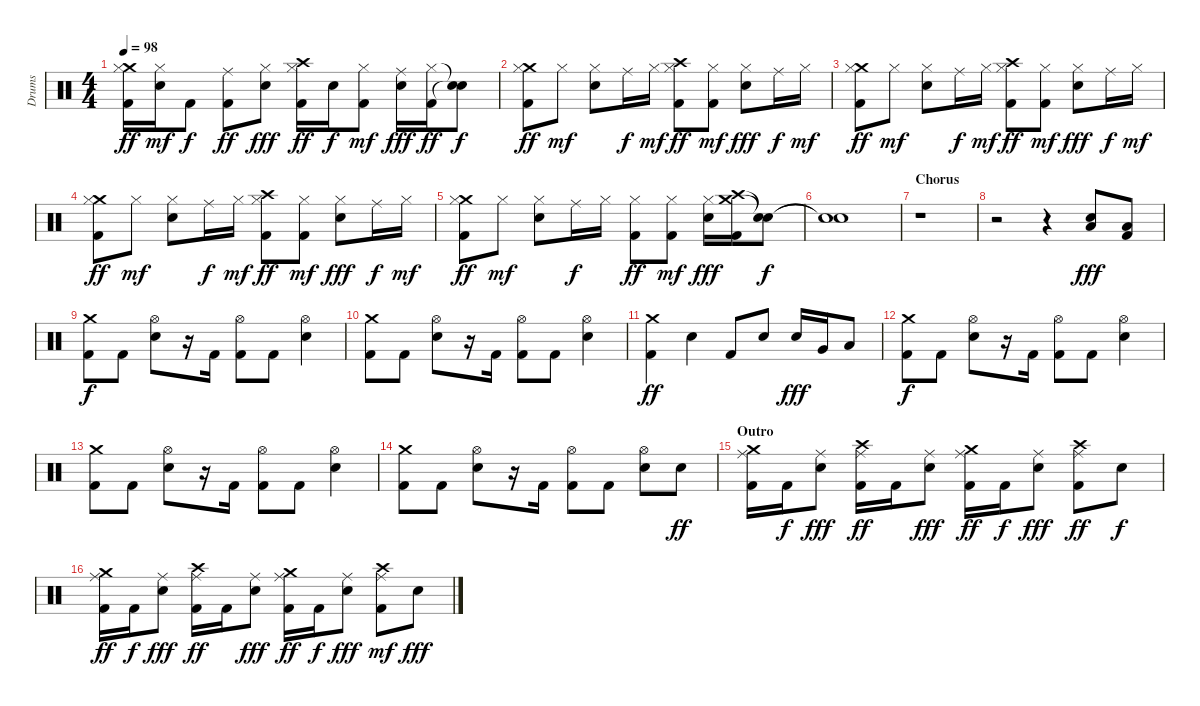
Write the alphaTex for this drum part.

\track ("Drums" "Drums") {instrument percussion}
\staff {score}
\articulation defaults
\ts (4 4)
\tempo 98
\clef neutral
\ks c
("Crash medium (hit)" "Hi-Hat (closed)" "Kick (hit) 2").16{dy ff} ("Hi-Hat (closed)" "Electric Snare (hit)").16{dy mf} "Kick (hit) 2".8{dy f} ("Ride (middle)" "Kick (hit) 2").8{dy ff} ("Hi-Hat (closed)" "Electric Snare (hit)").8{dy fff} ("Crash high (hit)" "Hi-Hat (closed)" "Kick (hit) 2").16{dy ff} "Electric Snare (hit)".16{dy f} ("Hi-Hat (closed)" "Kick (hit) 2").8{dy mf} ("Ride (middle)" "Electric Snare (hit)").16{dy fff} ("Hi-Hat (closed)" "Kick (hit) 2").16{dy ff} ("Snare (hit)"{t} "Snare (hit)"{t}).8{dy f} |
("Crash medium (hit)" "Hi-Hat (closed)" "Kick (hit) 2").8{dy ff} "Hi-Hat (closed)".8{dy mf} ("Hi-Hat (closed)" "Electric Snare (hit)").8 "Ride (middle)".16{dy f} "Hi-Hat (closed)".16{dy mf} ("Crash high (hit)" "Hi-Hat (closed)" "Kick (hit) 2").8{dy ff} ("Hi-Hat (closed)" "Kick (hit) 2").8{dy mf} ("Hi-Hat (closed)" "Electric Snare (hit)").8{dy fff} "Ride (middle)".16{dy f} "Hi-Hat (closed)".16{dy mf} |
("Crash medium (hit)" "Hi-Hat (closed)" "Kick (hit) 2").8{dy ff} "Hi-Hat (closed)".8{dy mf} ("Hi-Hat (closed)" "Electric Snare (hit)").8 "Ride (middle)".16{dy f} "Hi-Hat (closed)".16{dy mf} ("Crash high (hit)" "Hi-Hat (closed)" "Kick (hit) 2").8{dy ff} ("Hi-Hat (closed)" "Kick (hit) 2").8{dy mf} ("Hi-Hat (closed)" "Electric Snare (hit)").8{dy fff} "Ride (middle)".16{dy f} "Hi-Hat (closed)".16{dy mf} |
("Crash medium (hit)" "Hi-Hat (closed)" "Kick (hit) 2").8{dy ff} "Hi-Hat (closed)".8{dy mf} ("Hi-Hat (closed)" "Electric Snare (hit)").8 "Ride (middle)".16{dy f} "Hi-Hat (closed)".16{dy mf} ("Crash high (hit)" "Hi-Hat (closed)" "Kick (hit) 2").8{dy ff} ("Hi-Hat (closed)" "Kick (hit) 2").8{dy mf} ("Hi-Hat (closed)" "Electric Snare (hit)").8{dy fff} "Ride (middle)".16{dy f} "Hi-Hat (closed)".16{dy mf} |
("Crash medium (hit)" "Hi-Hat (closed)" "Kick (hit) 2").8{dy ff} "Hi-Hat (closed)".8{dy mf} ("Hi-Hat (closed)" "Electric Snare (hit)").8 "Ride (middle)".16{dy f} "Hi-Hat (closed)".16 ("Hi-Hat (closed)" "Kick (hit) 2").8{dy ff} ("Hi-Hat (closed)" "Kick (hit) 2").8{dy mf} ("Hi-Hat (closed)" "Electric Snare (hit)").16{dy fff} ("Crash medium (hit)" "Crash high (hit)" "Kick (hit) 2").16 ("Snare (hit)"{t} "Snare (hit)"{t}).8{dy f} |
("Snare (hit)"{t} "Snare (hit)"{t}).1 |
\section ("" "Chorus")
r.1 |
r.2 r.4 ("Electric Snare (hit)" "Low Floor Tom (hit)").8{dy fff} ("Low Floor Tom (hit)" "Kick (hit) 2").8 |
("Crash medium (hit)" "Kick (hit) 2").8{dy f} "Kick (hit) 2".8 ("Hi-Hat (open)" "Electric Snare (hit)").8 r.16 "Kick (hit) 2".16 ("Hi-Hat (open)" "Kick (hit) 2").8 "Kick (hit) 2".8 ("Hi-Hat (open)" "Electric Snare (hit)").4 |
("Crash medium (hit)" "Kick (hit) 2").8 "Kick (hit) 2".8 ("Hi-Hat (open)" "Electric Snare (hit)").8 r.16 "Kick (hit) 2".16 ("Hi-Hat (open)" "Kick (hit) 2").8 "Kick (hit) 2".8 ("Hi-Hat (open)" "Electric Snare (hit)").4 |
("Crash medium (hit)" "Kick (hit) 2").4{dy ff} "Electric Snare (hit)".4 "Kick (hit) 2".8 "Electric Snare (hit)".8 "Electric Snare (hit)".16{dy fff} "Very Low Tom (hit)".16 "Low Floor Tom (hit)".8 |
("Crash medium (hit)" "Kick (hit) 2").8{dy f} "Kick (hit) 2".8 ("Hi-Hat (open)" "Electric Snare (hit)").8 r.16 "Kick (hit) 2".16 ("Hi-Hat (open)" "Kick (hit) 2").8 "Kick (hit) 2".8 ("Hi-Hat (open)" "Electric Snare (hit)").4 |
("Crash medium (hit)" "Kick (hit) 2").8 "Kick (hit) 2".8 ("Hi-Hat (open)" "Electric Snare (hit)").8 r.16 "Kick (hit) 2".16 ("Hi-Hat (open)" "Kick (hit) 2").8 "Kick (hit) 2".8 ("Hi-Hat (open)" "Electric Snare (hit)").4 |
("Crash medium (hit)" "Kick (hit) 2").8 "Kick (hit) 2".8 ("Hi-Hat (open)" "Electric Snare (hit)").8 r.16 "Kick (hit) 2".16 ("Hi-Hat (open)" "Kick (hit) 2").8 "Kick (hit) 2".8 ("Hi-Hat (open)" "Electric Snare (hit)").8 "Electric Snare (hit)".8{dy ff} |
\section ("" "Outro")
("Crash medium (hit)" "Ride (middle)" "Kick (hit) 2").16 "Kick (hit) 2".16{dy f} ("Ride (middle)" "Electric Snare (hit)").8{dy fff} ("Crash high (hit)" "Ride (middle)" "Kick (hit) 2").16{dy ff} "Kick (hit) 2".16 ("Ride (middle)" "Electric Snare (hit)").8{dy fff} ("Crash medium (hit)" "Ride (middle)" "Kick (hit) 2").16{dy ff} "Kick (hit) 2".16{dy f} ("Ride (middle)" "Electric Snare (hit)").8{dy fff} ("Crash high (hit)" "Ride (middle)" "Kick (hit) 2").8{dy ff} "Electric Snare (hit)".8{dy f} |
("Crash medium (hit)" "Ride (middle)" "Kick (hit) 2").16{dy ff} "Kick (hit) 2".16{dy f} ("Ride (middle)" "Electric Snare (hit)").8{dy fff} ("Crash high (hit)" "Ride (middle)" "Kick (hit) 2").16{dy ff} "Kick (hit) 2".16 ("Ride (middle)" "Electric Snare (hit)").8{dy fff} ("Crash medium (hit)" "Ride (middle)" "Kick (hit) 2").16{dy ff} "Kick (hit) 2".16{dy f} ("Ride (middle)" "Electric Snare (hit)").8{dy fff} ("Crash high (hit)" "Ride (middle)" "Kick (hit) 2").8{dy mf} "Electric Snare (hit)".8{dy fff}
